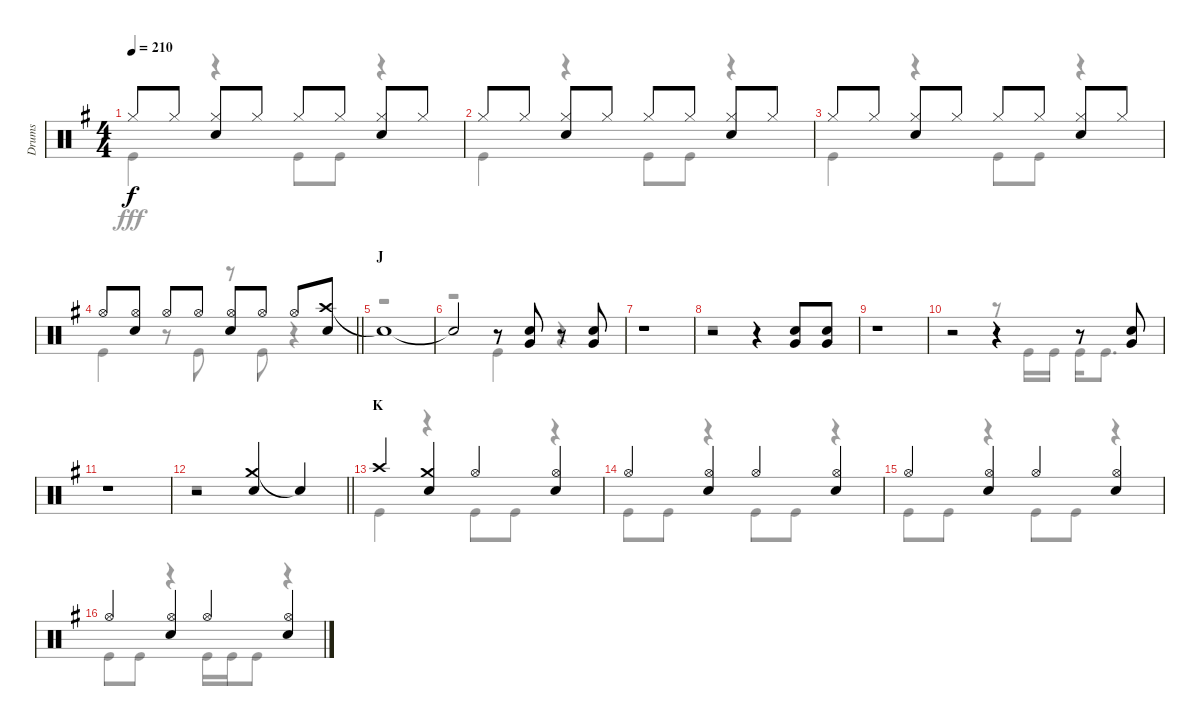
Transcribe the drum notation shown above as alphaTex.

\track ("Drums" "Drums") {instrument percussion}
\staff {score}
\articulation defaults
\voice
\ts (4 4)
\tempo 210
\clef neutral
\ks g "Hi-Hat (closed)".8{dy f} "Hi-Hat (closed)".8
("Hi-Hat (closed)" "Snare (hit) 2").8 "Hi-Hat (closed)".8 "Hi-Hat (closed)".8 "Hi-Hat (closed)".8 ("Hi-Hat (closed)" "Snare (hit) 2").8 "Hi-Hat (closed)".8 |
"Hi-Hat (closed)".8 "Hi-Hat (closed)".8 ("Hi-Hat (closed)" "Snare (hit) 2").8 "Hi-Hat (closed)".8 "Hi-Hat (closed)".8 "Hi-Hat (closed)".8 ("Hi-Hat (closed)" "Snare (hit) 2").8 "Hi-Hat (closed)".8 |
"Hi-Hat (closed)".8 "Hi-Hat (closed)".8 ("Hi-Hat (closed)" "Snare (hit) 2").8 "Hi-Hat (closed)".8 "Hi-Hat (closed)".8 "Hi-Hat (closed)".8 ("Hi-Hat (closed)" "Snare (hit) 2").8 "Hi-Hat (closed)".8 |
\barLineRight lightlight "Hi-Hat (open)".8
("Hi-Hat (open)" "Snare (hit) 2").8 "Hi-Hat (open)".8 "Hi-Hat (open)".8 ("Hi-Hat (open)" "Snare (hit) 2").8 "Hi-Hat (open)".8 "Hi-Hat (open)".8 ("Crash high (hit)" "Snare (hit) 2").8 |
\section ("" "J")
"Snare (hit)"{t}.1 |
"Snare (hit)"{t}.2 r.8 ("Snare (hit) 2" "Very Low Tom (hit)").8 r.8 ("Snare (hit) 2" "Very Low Tom (hit)").8 |
r.1 |
r.2 r.4 ("Snare (hit) 2" "Very Low Tom (hit)").8 ("Snare (hit) 2" "Very Low Tom (hit)").8 |
r.1 |
r.2 r.4 r.8 ("Snare (hit) 2" "Very Low Tom (hit)").8 |
r.1 |
\barLineRight lightlight
r.2 ("Crash medium (hit)" "Snare (hit) 2").4 "Snare (hit)"{t}.4 |
\section ("" "K")
"Crash high (hit)".4 ("Crash medium (hit)" "Snare (hit) 2").4 "Hi-Hat (open)".4 ("Hi-Hat (open)" "Snare (hit) 2").4 |
"Hi-Hat (open)".4 ("Hi-Hat (open)" "Snare (hit) 2").4 "Hi-Hat (open)".4 ("Hi-Hat (open)" "Snare (hit) 2").4 |
"Hi-Hat (open)".4 ("Hi-Hat (open)" "Snare (hit) 2").4 "Hi-Hat (open)".4 ("Hi-Hat (open)" "Snare (hit) 2").4 |
"Hi-Hat (open)".4 ("Hi-Hat (open)" "Snare (hit) 2").4 "Hi-Hat (open)".4 ("Hi-Hat (open)" "Snare (hit) 2").4
\voice
\clef neutral
\ottava regular
\simile none
\ks g "Kick (hit)".4{dy fff}
r.4 "Kick (hit)".8 "Kick (hit)".8 r.4 |
"Kick (hit)".4 r.4 "Kick (hit)".8 "Kick (hit)".8 r.4 |
"Kick (hit)".4 r.4 "Kick (hit)".8 "Kick (hit)".8 r.4 |
\barLineRight lightlight "Kick (hit)".4
r.8 "Kick (hit)".8 r.8 "Kick (hit)".8 r.4 |
r.1 |
r.2 "Kick (hit)".4 r.4 |
r.1 |
r.1 |
r.1 |
r.2 r.8 "Kick (hit)".16 "Kick (hit)".16 "Kick (hit)".16 "Kick (hit)".8{d} |
r.1 |
\barLineRight lightlight
r.1 |
"Kick (hit)".4 r.4 "Kick (hit)".8 "Kick (hit)".8 r.4 |
"Kick (hit)".8 "Kick (hit)".8 r.4 "Kick (hit)".8 "Kick (hit)".8 r.4 |
"Kick (hit)".8 "Kick (hit)".8 r.4 "Kick (hit)".8 "Kick (hit)".8 r.4 |
"Kick (hit)".8 "Kick (hit)".8 r.4 "Kick (hit)".16 "Kick (hit)".16 "Kick (hit)".8 r.4
